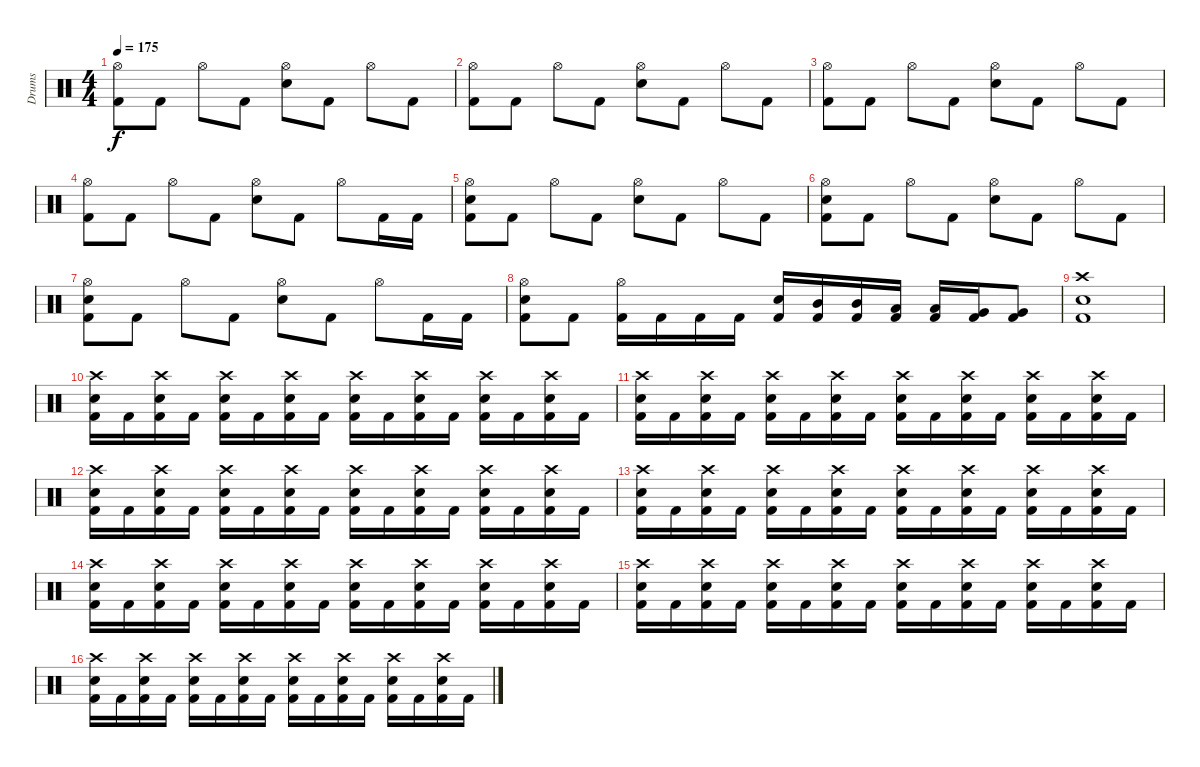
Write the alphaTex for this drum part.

\track ("Drums" "Drums") {instrument percussion}
\staff {score}
\articulation defaults
\ts (4 4)
\tempo 175
\clef neutral
\ks c
("Hi-Hat (open)" "Kick (hit) 2").8{dy f} "Kick (hit) 2".8 "Hi-Hat (open)".8 "Kick (hit) 2".8 ("Hi-Hat (open)" "Snare (hit) 2").8 "Kick (hit) 2".8 "Hi-Hat (open)".8 "Kick (hit) 2".8 |
("Hi-Hat (open)" "Kick (hit) 2").8 "Kick (hit) 2".8 "Hi-Hat (open)".8 "Kick (hit) 2".8 ("Hi-Hat (open)" "Snare (hit) 2").8 "Kick (hit) 2".8 "Hi-Hat (open)".8 "Kick (hit) 2".8 |
("Hi-Hat (open)" "Kick (hit) 2").8 "Kick (hit) 2".8 "Hi-Hat (open)".8 "Kick (hit) 2".8 ("Hi-Hat (open)" "Snare (hit) 2").8 "Kick (hit) 2".8 "Hi-Hat (open)".8 "Kick (hit) 2".8 |
("Hi-Hat (open)" "Kick (hit) 2").8 "Kick (hit) 2".8 "Hi-Hat (open)".8 "Kick (hit) 2".8 ("Hi-Hat (open)" "Snare (hit) 2").8 "Kick (hit) 2".8 "Hi-Hat (open)".8 "Kick (hit) 2".16 "Kick (hit) 2".16 |
("Hi-Hat (open)" "Snare (hit) 2" "Kick (hit) 2").8 "Kick (hit) 2".8 "Hi-Hat (open)".8 "Kick (hit) 2".8 ("Hi-Hat (open)" "Snare (hit) 2").8 "Kick (hit) 2".8 "Hi-Hat (open)".8 "Kick (hit) 2".8 |
("Hi-Hat (open)" "Snare (hit) 2" "Kick (hit) 2").8 "Kick (hit) 2".8 "Hi-Hat (open)".8 "Kick (hit) 2".8 ("Hi-Hat (open)" "Snare (hit) 2").8 "Kick (hit) 2".8 "Hi-Hat (open)".8 "Kick (hit) 2".8 |
("Hi-Hat (open)" "Snare (hit) 2" "Kick (hit) 2").8 "Kick (hit) 2".8 "Hi-Hat (open)".8 "Kick (hit) 2".8 ("Hi-Hat (open)" "Snare (hit) 2").8 "Kick (hit) 2".8 "Hi-Hat (open)".8 "Kick (hit) 2".16 "Kick (hit) 2".16 |
("Hi-Hat (open)" "Snare (hit) 2" "Kick (hit) 2").8 "Kick (hit) 2".8 ("Hi-Hat (open)" "Kick (hit) 2").16 "Kick (hit) 2".16 "Kick (hit) 2".16 "Kick (hit) 2".16 ("Snare (hit) 2" "Kick (hit) 2").16 ("Mid Tom (hit)" "Kick (hit) 2").16 ("Mid Tom (hit)" "Kick (hit) 2").16 ("Low Tom (hit)" "Kick (hit) 2").16 ("Low Tom (hit)" "Kick (hit) 2").16 ("Very Low Tom (hit)" "Kick (hit) 2").16 ("Very Low Tom (hit)" "Kick (hit) 2").8 |
("Crash high (hit)" "Snare (hit) 2" "Kick (hit) 2").1 |
("Crash high (hit)" "Snare (hit) 2" "Kick (hit) 2").16 "Kick (hit) 2".16 ("Crash high (hit)" "Snare (hit) 2" "Kick (hit) 2").16 "Kick (hit) 2".16 ("Crash high (hit)" "Snare (hit) 2" "Kick (hit) 2").16 "Kick (hit) 2".16 ("Crash high (hit)" "Snare (hit) 2" "Kick (hit) 2").16 "Kick (hit) 2".16 ("Crash high (hit)" "Snare (hit) 2" "Kick (hit) 2").16 "Kick (hit) 2".16 ("Crash high (hit)" "Snare (hit) 2" "Kick (hit) 2").16 "Kick (hit) 2".16 ("Crash high (hit)" "Snare (hit) 2" "Kick (hit) 2").16 "Kick (hit) 2".16 ("Crash high (hit)" "Snare (hit) 2" "Kick (hit) 2").16 "Kick (hit) 2".16 |
("Crash high (hit)" "Snare (hit) 2" "Kick (hit) 2").16 "Kick (hit) 2".16 ("Crash high (hit)" "Snare (hit) 2" "Kick (hit) 2").16 "Kick (hit) 2".16 ("Crash high (hit)" "Snare (hit) 2" "Kick (hit) 2").16 "Kick (hit) 2".16 ("Crash high (hit)" "Snare (hit) 2" "Kick (hit) 2").16 "Kick (hit) 2".16 ("Crash high (hit)" "Snare (hit) 2" "Kick (hit) 2").16 "Kick (hit) 2".16 ("Crash high (hit)" "Snare (hit) 2" "Kick (hit) 2").16 "Kick (hit) 2".16 ("Crash high (hit)" "Snare (hit) 2" "Kick (hit) 2").16 "Kick (hit) 2".16 ("Crash high (hit)" "Snare (hit) 2" "Kick (hit) 2").16 "Kick (hit) 2".16 |
("Crash high (hit)" "Snare (hit) 2" "Kick (hit) 2").16 "Kick (hit) 2".16 ("Crash high (hit)" "Snare (hit) 2" "Kick (hit) 2").16 "Kick (hit) 2".16 ("Crash high (hit)" "Snare (hit) 2" "Kick (hit) 2").16 "Kick (hit) 2".16 ("Crash high (hit)" "Snare (hit) 2" "Kick (hit) 2").16 "Kick (hit) 2".16 ("Crash high (hit)" "Snare (hit) 2" "Kick (hit) 2").16 "Kick (hit) 2".16 ("Crash high (hit)" "Snare (hit) 2" "Kick (hit) 2").16 "Kick (hit) 2".16 ("Crash high (hit)" "Snare (hit) 2" "Kick (hit) 2").16 "Kick (hit) 2".16 ("Crash high (hit)" "Snare (hit) 2" "Kick (hit) 2").16 "Kick (hit) 2".16 |
("Crash high (hit)" "Snare (hit) 2" "Kick (hit) 2").16 "Kick (hit) 2".16 ("Crash high (hit)" "Snare (hit) 2" "Kick (hit) 2").16 "Kick (hit) 2".16 ("Crash high (hit)" "Snare (hit) 2" "Kick (hit) 2").16 "Kick (hit) 2".16 ("Crash high (hit)" "Snare (hit) 2" "Kick (hit) 2").16 "Kick (hit) 2".16 ("Crash high (hit)" "Snare (hit) 2" "Kick (hit) 2").16 "Kick (hit) 2".16 ("Crash high (hit)" "Snare (hit) 2" "Kick (hit) 2").16 "Kick (hit) 2".16 ("Crash high (hit)" "Snare (hit) 2" "Kick (hit) 2").16 "Kick (hit) 2".16 ("Crash high (hit)" "Snare (hit) 2" "Kick (hit) 2").16 "Kick (hit) 2".16 |
("Crash high (hit)" "Snare (hit) 2" "Kick (hit) 2").16 "Kick (hit) 2".16 ("Crash high (hit)" "Snare (hit) 2" "Kick (hit) 2").16 "Kick (hit) 2".16 ("Crash high (hit)" "Snare (hit) 2" "Kick (hit) 2").16 "Kick (hit) 2".16 ("Crash high (hit)" "Snare (hit) 2" "Kick (hit) 2").16 "Kick (hit) 2".16 ("Crash high (hit)" "Snare (hit) 2" "Kick (hit) 2").16 "Kick (hit) 2".16 ("Crash high (hit)" "Snare (hit) 2" "Kick (hit) 2").16 "Kick (hit) 2".16 ("Crash high (hit)" "Snare (hit) 2" "Kick (hit) 2").16 "Kick (hit) 2".16 ("Crash high (hit)" "Snare (hit) 2" "Kick (hit) 2").16 "Kick (hit) 2".16 |
("Crash high (hit)" "Snare (hit) 2" "Kick (hit) 2").16 "Kick (hit) 2".16 ("Crash high (hit)" "Snare (hit) 2" "Kick (hit) 2").16 "Kick (hit) 2".16 ("Crash high (hit)" "Snare (hit) 2" "Kick (hit) 2").16 "Kick (hit) 2".16 ("Crash high (hit)" "Snare (hit) 2" "Kick (hit) 2").16 "Kick (hit) 2".16 ("Crash high (hit)" "Snare (hit) 2" "Kick (hit) 2").16 "Kick (hit) 2".16 ("Crash high (hit)" "Snare (hit) 2" "Kick (hit) 2").16 "Kick (hit) 2".16 ("Crash high (hit)" "Snare (hit) 2" "Kick (hit) 2").16 "Kick (hit) 2".16 ("Crash high (hit)" "Snare (hit) 2" "Kick (hit) 2").16 "Kick (hit) 2".16 |
("Crash high (hit)" "Snare (hit) 2" "Kick (hit) 2").16 "Kick (hit) 2".16 ("Crash high (hit)" "Snare (hit) 2" "Kick (hit) 2").16 "Kick (hit) 2".16 ("Crash high (hit)" "Snare (hit) 2" "Kick (hit) 2").16 "Kick (hit) 2".16 ("Crash high (hit)" "Snare (hit) 2" "Kick (hit) 2").16 "Kick (hit) 2".16 ("Crash high (hit)" "Snare (hit) 2" "Kick (hit) 2").16 "Kick (hit) 2".16 ("Crash high (hit)" "Snare (hit) 2" "Kick (hit) 2").16 "Kick (hit) 2".16 ("Crash high (hit)" "Snare (hit) 2" "Kick (hit) 2").16 "Kick (hit) 2".16 ("Crash high (hit)" "Snare (hit) 2" "Kick (hit) 2").16 "Kick (hit) 2".16
